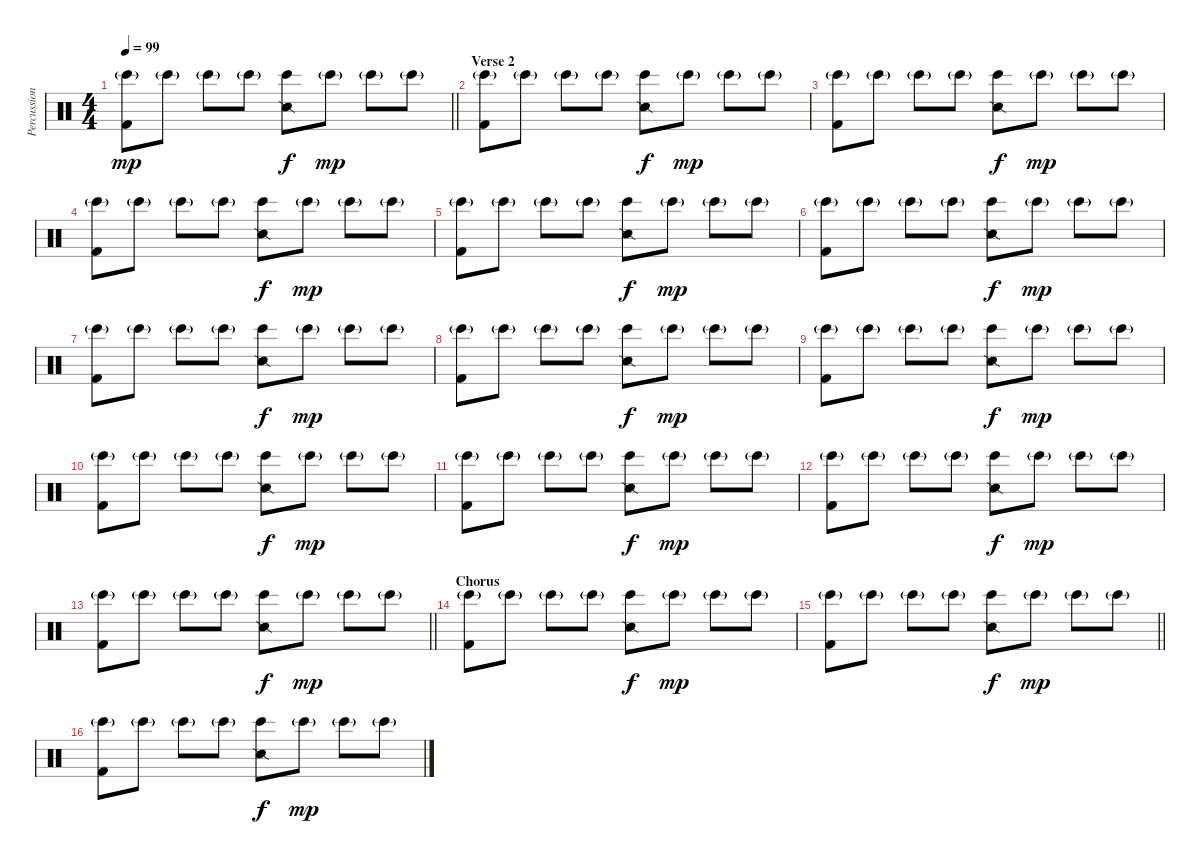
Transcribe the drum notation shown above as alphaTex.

\track ("Percussion" "Percussion") {instrument percussion}
\staff {score}
\articulation defaults
\ts (4 4)
\tempo 99
\clef neutral
\barLineRight lightlight
\ks c
("Bongo High (hit)"{g} "Kick (hit) 2").8{dy mp} "Bongo High (hit)"{g}.8 "Bongo High (hit)"{g}.8 "Bongo High (hit)"{g}.8 ("Bongo High (hit)" "Snare (side stick) 2").8{dy f} "Bongo High (hit)"{g}.8{dy mp} "Bongo High (hit)"{g}.8 "Bongo High (hit)"{g}.8 |
\section ("" "Verse 2")
("Bongo High (hit)"{g} "Kick (hit) 2").8 "Bongo High (hit)"{g}.8 "Bongo High (hit)"{g}.8 "Bongo High (hit)"{g}.8 ("Bongo High (hit)" "Snare (side stick) 2").8{dy f} "Bongo High (hit)"{g}.8{dy mp} "Bongo High (hit)"{g}.8 "Bongo High (hit)"{g}.8 |
("Bongo High (hit)"{g} "Kick (hit) 2").8 "Bongo High (hit)"{g}.8 "Bongo High (hit)"{g}.8 "Bongo High (hit)"{g}.8 ("Bongo High (hit)" "Snare (side stick) 2").8{dy f} "Bongo High (hit)"{g}.8{dy mp} "Bongo High (hit)"{g}.8 "Bongo High (hit)"{g}.8 |
("Bongo High (hit)"{g} "Kick (hit) 2").8 "Bongo High (hit)"{g}.8 "Bongo High (hit)"{g}.8 "Bongo High (hit)"{g}.8 ("Bongo High (hit)" "Snare (side stick) 2").8{dy f} "Bongo High (hit)"{g}.8{dy mp} "Bongo High (hit)"{g}.8 "Bongo High (hit)"{g}.8 |
("Bongo High (hit)"{g} "Kick (hit) 2").8 "Bongo High (hit)"{g}.8 "Bongo High (hit)"{g}.8 "Bongo High (hit)"{g}.8 ("Bongo High (hit)" "Snare (side stick) 2").8{dy f} "Bongo High (hit)"{g}.8{dy mp} "Bongo High (hit)"{g}.8 "Bongo High (hit)"{g}.8 |
("Bongo High (hit)"{g} "Kick (hit) 2").8 "Bongo High (hit)"{g}.8 "Bongo High (hit)"{g}.8 "Bongo High (hit)"{g}.8 ("Bongo High (hit)" "Snare (side stick) 2").8{dy f} "Bongo High (hit)"{g}.8{dy mp} "Bongo High (hit)"{g}.8 "Bongo High (hit)"{g}.8 |
("Bongo High (hit)"{g} "Kick (hit) 2").8 "Bongo High (hit)"{g}.8 "Bongo High (hit)"{g}.8 "Bongo High (hit)"{g}.8 ("Bongo High (hit)" "Snare (side stick) 2").8{dy f} "Bongo High (hit)"{g}.8{dy mp} "Bongo High (hit)"{g}.8 "Bongo High (hit)"{g}.8 |
("Bongo High (hit)"{g} "Kick (hit) 2").8 "Bongo High (hit)"{g}.8 "Bongo High (hit)"{g}.8 "Bongo High (hit)"{g}.8 ("Bongo High (hit)" "Snare (side stick) 2").8{dy f} "Bongo High (hit)"{g}.8{dy mp} "Bongo High (hit)"{g}.8 "Bongo High (hit)"{g}.8 |
("Bongo High (hit)"{g} "Kick (hit) 2").8 "Bongo High (hit)"{g}.8 "Bongo High (hit)"{g}.8 "Bongo High (hit)"{g}.8 ("Bongo High (hit)" "Snare (side stick) 2").8{dy f} "Bongo High (hit)"{g}.8{dy mp} "Bongo High (hit)"{g}.8 "Bongo High (hit)"{g}.8 |
("Bongo High (hit)"{g} "Kick (hit) 2").8 "Bongo High (hit)"{g}.8 "Bongo High (hit)"{g}.8 "Bongo High (hit)"{g}.8 ("Bongo High (hit)" "Snare (side stick) 2").8{dy f} "Bongo High (hit)"{g}.8{dy mp} "Bongo High (hit)"{g}.8 "Bongo High (hit)"{g}.8 |
("Bongo High (hit)"{g} "Kick (hit) 2").8 "Bongo High (hit)"{g}.8 "Bongo High (hit)"{g}.8 "Bongo High (hit)"{g}.8 ("Bongo High (hit)" "Snare (side stick) 2").8{dy f} "Bongo High (hit)"{g}.8{dy mp} "Bongo High (hit)"{g}.8 "Bongo High (hit)"{g}.8 |
("Bongo High (hit)"{g} "Kick (hit) 2").8 "Bongo High (hit)"{g}.8 "Bongo High (hit)"{g}.8 "Bongo High (hit)"{g}.8 ("Bongo High (hit)" "Snare (side stick) 2").8{dy f} "Bongo High (hit)"{g}.8{dy mp} "Bongo High (hit)"{g}.8 "Bongo High (hit)"{g}.8 |
\barLineRight lightlight
("Bongo High (hit)"{g} "Kick (hit) 2").8 "Bongo High (hit)"{g}.8 "Bongo High (hit)"{g}.8 "Bongo High (hit)"{g}.8 ("Bongo High (hit)" "Snare (side stick) 2").8{dy f} "Bongo High (hit)"{g}.8{dy mp} "Bongo High (hit)"{g}.8 "Bongo High (hit)"{g}.8 |
\section ("" "Chorus")
("Bongo High (hit)"{g} "Kick (hit) 2").8 "Bongo High (hit)"{g}.8 "Bongo High (hit)"{g}.8 "Bongo High (hit)"{g}.8 ("Bongo High (hit)" "Snare (side stick) 2").8{dy f} "Bongo High (hit)"{g}.8{dy mp} "Bongo High (hit)"{g}.8 "Bongo High (hit)"{g}.8 |
\barLineRight lightlight
("Bongo High (hit)"{g} "Kick (hit) 2").8 "Bongo High (hit)"{g}.8 "Bongo High (hit)"{g}.8 "Bongo High (hit)"{g}.8 ("Bongo High (hit)" "Snare (side stick) 2").8{dy f} "Bongo High (hit)"{g}.8{dy mp} "Bongo High (hit)"{g}.8 "Bongo High (hit)"{g}.8 |
("Bongo High (hit)"{g} "Kick (hit) 2").8 "Bongo High (hit)"{g}.8 "Bongo High (hit)"{g}.8 "Bongo High (hit)"{g}.8 ("Bongo High (hit)" "Snare (side stick) 2").8{dy f} "Bongo High (hit)"{g}.8{dy mp} "Bongo High (hit)"{g}.8 "Bongo High (hit)"{g}.8
